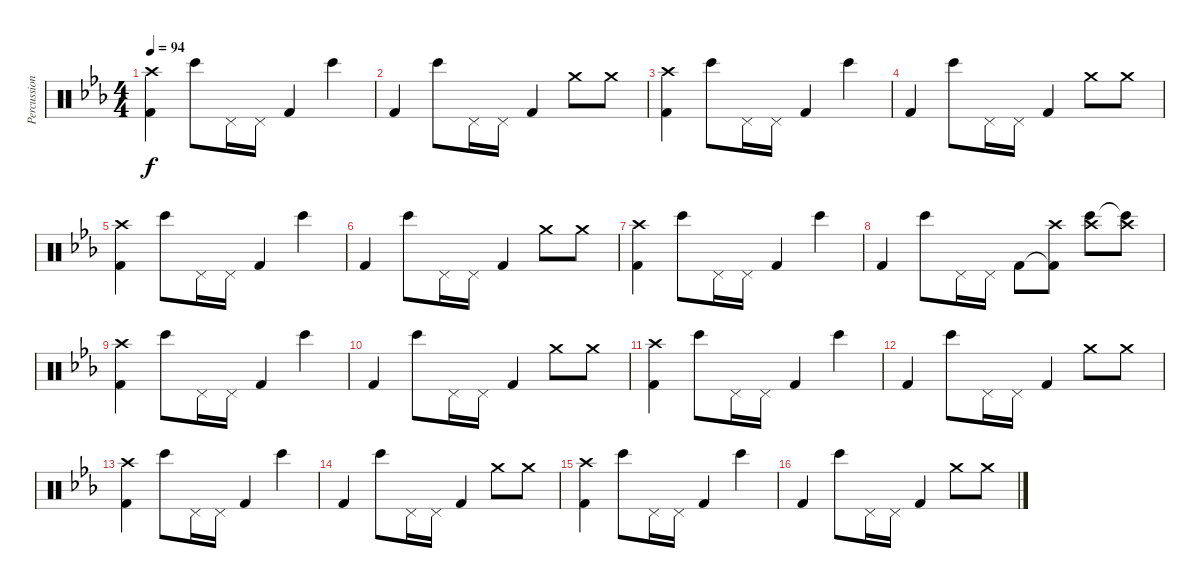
\track ("Percussion" "Percussion") {instrument percussion}
\staff {score}
\articulation defaults
\ts (4 4)
\tempo 94
\clef neutral
\ks eb
("Kick (hit) 2" "Crash high (hit)").4{dy f} "Bongo High (hit)".8 "Pedal Hi-Hat (hit)".16 "Pedal Hi-Hat (hit)".16 "Kick (hit) 2".4 "Bongo High (hit)".4 |
"Kick (hit) 2".4 "Bongo High (hit)".8 "Pedal Hi-Hat (hit)".16 "Pedal Hi-Hat (hit)".16 "Kick (hit) 2".4 "Crash medium (hit)".8 "Crash medium (hit)".8 |
("Kick (hit) 2" "Crash high (hit)").4 "Bongo High (hit)".8 "Pedal Hi-Hat (hit)".16 "Pedal Hi-Hat (hit)".16 "Kick (hit) 2".4 "Bongo High (hit)".4 |
"Kick (hit) 2".4 "Bongo High (hit)".8 "Pedal Hi-Hat (hit)".16 "Pedal Hi-Hat (hit)".16 "Kick (hit) 2".4 "Crash medium (hit)".8 "Crash medium (hit)".8 |
("Kick (hit) 2" "Crash high (hit)").4 "Bongo High (hit)".8 "Pedal Hi-Hat (hit)".16 "Pedal Hi-Hat (hit)".16 "Kick (hit) 2".4 "Bongo High (hit)".4 |
"Kick (hit) 2".4 "Bongo High (hit)".8 "Pedal Hi-Hat (hit)".16 "Pedal Hi-Hat (hit)".16 "Kick (hit) 2".4 "Crash medium (hit)".8 "Crash medium (hit)".8 |
("Kick (hit) 2" "Crash high (hit)").4 "Bongo High (hit)".8 "Pedal Hi-Hat (hit)".16 "Pedal Hi-Hat (hit)".16 "Kick (hit) 2".4 "Bongo High (hit)".4 |
"Kick (hit) 2".4 "Bongo High (hit)".8 "Pedal Hi-Hat (hit)".16 "Pedal Hi-Hat (hit)".16 "Kick (hit) 2".8 ("Kick (hit) 2"{t} "Crash high (hit)").8 ("Bongo High (hit)" "Crash high (hit)").8 ("Bongo High (hit)"{t} "Crash high (hit)").8 |
("Kick (hit) 2" "Crash high (hit)").4 "Bongo High (hit)".8 "Pedal Hi-Hat (hit)".16 "Pedal Hi-Hat (hit)".16 "Kick (hit) 2".4 "Bongo High (hit)".4 |
"Kick (hit) 2".4 "Bongo High (hit)".8 "Pedal Hi-Hat (hit)".16 "Pedal Hi-Hat (hit)".16 "Kick (hit) 2".4 "Crash medium (hit)".8 "Crash medium (hit)".8 |
("Kick (hit) 2" "Crash high (hit)").4 "Bongo High (hit)".8 "Pedal Hi-Hat (hit)".16 "Pedal Hi-Hat (hit)".16 "Kick (hit) 2".4 "Bongo High (hit)".4 |
"Kick (hit) 2".4 "Bongo High (hit)".8 "Pedal Hi-Hat (hit)".16 "Pedal Hi-Hat (hit)".16 "Kick (hit) 2".4 "Crash medium (hit)".8 "Crash medium (hit)".8 |
("Kick (hit) 2" "Crash high (hit)").4 "Bongo High (hit)".8 "Pedal Hi-Hat (hit)".16 "Pedal Hi-Hat (hit)".16 "Kick (hit) 2".4 "Bongo High (hit)".4 |
"Kick (hit) 2".4 "Bongo High (hit)".8 "Pedal Hi-Hat (hit)".16 "Pedal Hi-Hat (hit)".16 "Kick (hit) 2".4 "Crash medium (hit)".8 "Crash medium (hit)".8 |
("Kick (hit) 2" "Crash high (hit)").4 "Bongo High (hit)".8 "Pedal Hi-Hat (hit)".16 "Pedal Hi-Hat (hit)".16 "Kick (hit) 2".4 "Bongo High (hit)".4 |
"Kick (hit) 2".4 "Bongo High (hit)".8 "Pedal Hi-Hat (hit)".16 "Pedal Hi-Hat (hit)".16 "Kick (hit) 2".4 "Crash medium (hit)".8 "Crash medium (hit)".8
